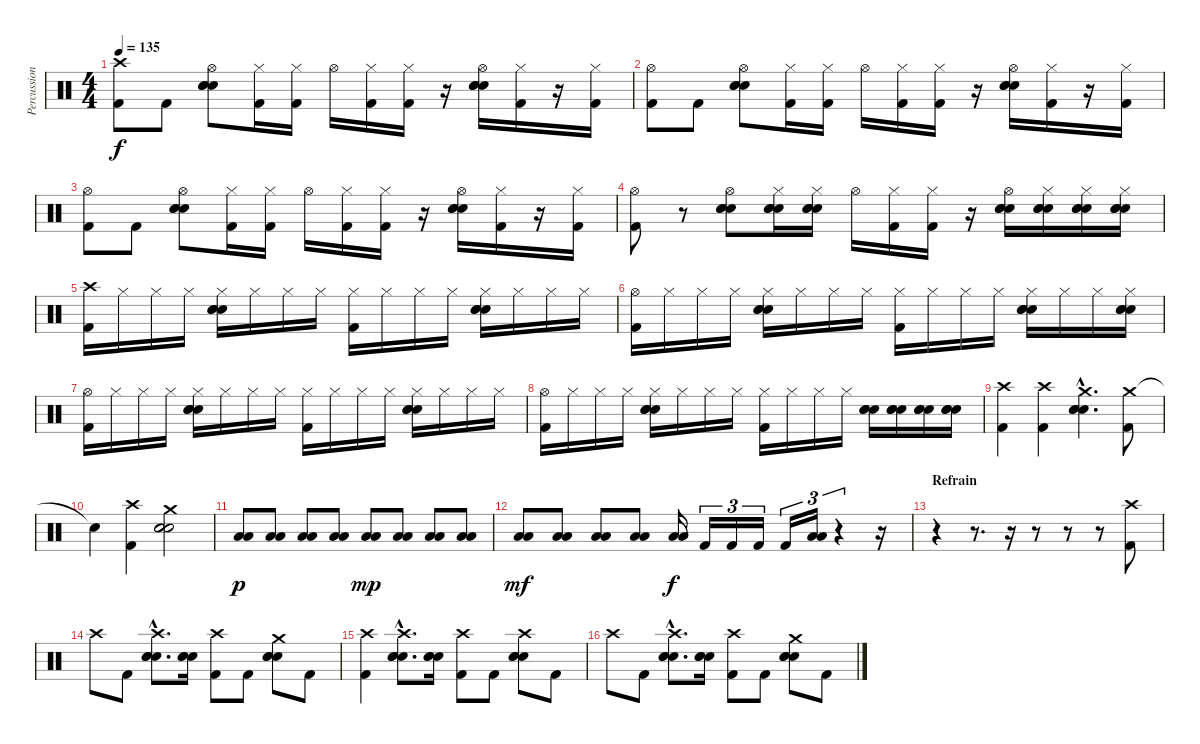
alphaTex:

\track ("Percussions" "Percussion") {instrument percussion}
\staff {score}
\articulation defaults
\ts (4 4)
\tempo 135
\clef neutral
\ks c
("Crash high (hit)" "Kick (hit) 2").8{dy f} "Kick (hit) 2".8 ("Hi-Hat (open)" "Snare (hit) 2" "Electric Snare (hit)" "Electric Snare (hit)").8 ("Hi-Hat (closed)" "Kick (hit) 2").16 ("Hi-Hat (closed)" "Kick (hit) 2").16 "Hi-Hat (open)".16 ("Hi-Hat (closed)" "Kick (hit) 2").16 ("Hi-Hat (closed)" "Kick (hit) 2").16 r.16 ("Hi-Hat (open)" "Snare (hit) 2" "Electric Snare (hit)" "Electric Snare (hit)").16 ("Hi-Hat (closed)" "Kick (hit) 2").16 r.16 ("Hi-Hat (closed)" "Kick (hit) 2").16 |
("Hi-Hat (open)" "Kick (hit) 2").8 "Kick (hit) 2".8 ("Hi-Hat (open)" "Snare (hit) 2" "Electric Snare (hit)" "Electric Snare (hit)").8 ("Hi-Hat (closed)" "Kick (hit) 2").16 ("Hi-Hat (closed)" "Kick (hit) 2").16 "Hi-Hat (open)".16 ("Hi-Hat (closed)" "Kick (hit) 2").16 ("Hi-Hat (closed)" "Kick (hit) 2").16 r.16 ("Hi-Hat (open)" "Snare (hit) 2" "Electric Snare (hit)" "Electric Snare (hit)").16 ("Hi-Hat (closed)" "Kick (hit) 2").16 r.16 ("Hi-Hat (closed)" "Kick (hit) 2").16 |
("Hi-Hat (open)" "Kick (hit) 2").8 "Kick (hit) 2".8 ("Hi-Hat (open)" "Snare (hit) 2" "Electric Snare (hit)" "Electric Snare (hit)").8 ("Hi-Hat (closed)" "Kick (hit) 2").16 ("Hi-Hat (closed)" "Kick (hit) 2").16 "Hi-Hat (open)".16 ("Hi-Hat (closed)" "Kick (hit) 2").16 ("Hi-Hat (closed)" "Kick (hit) 2").16 r.16 ("Hi-Hat (open)" "Snare (hit) 2" "Electric Snare (hit)" "Electric Snare (hit)").16 ("Hi-Hat (closed)" "Kick (hit) 2").16 r.16 ("Hi-Hat (closed)" "Kick (hit) 2").16 |
("Hi-Hat (open)" "Kick (hit) 2").8 r.8 ("Hi-Hat (open)" "Snare (hit) 2" "Electric Snare (hit)" "Electric Snare (hit)").8 ("Hi-Hat (closed)" "Snare (hit) 2" "Electric Snare (hit)" "Electric Snare (hit)").16 ("Hi-Hat (closed)" "Snare (hit) 2" "Electric Snare (hit)" "Electric Snare (hit)").16 "Hi-Hat (open)".16 ("Hi-Hat (closed)" "Kick (hit) 2").16 ("Hi-Hat (closed)" "Kick (hit) 2").16 r.16 ("Hi-Hat (open)" "Snare (hit) 2" "Electric Snare (hit)" "Electric Snare (hit)").16 ("Hi-Hat (closed)" "Snare (hit) 2" "Electric Snare (hit)" "Electric Snare (hit)").16 ("Hi-Hat (closed)" "Snare (hit) 2" "Electric Snare (hit)" "Electric Snare (hit)").16 ("Hi-Hat (closed)" "Snare (hit) 2" "Electric Snare (hit)" "Electric Snare (hit)").16 |
("Crash high (hit)" "Kick (hit) 2").16 "Hi-Hat (closed)".16 "Hi-Hat (closed)".16 "Hi-Hat (closed)".16 ("Hi-Hat (closed)" "Snare (hit) 2" "Electric Snare (hit)" "Electric Snare (hit)").16 "Hi-Hat (closed)".16 "Hi-Hat (closed)".16 "Hi-Hat (closed)".16 ("Hi-Hat (closed)" "Kick (hit) 2").16 "Hi-Hat (closed)".16 "Hi-Hat (closed)".16 "Hi-Hat (closed)".16 ("Hi-Hat (closed)" "Snare (hit) 2" "Electric Snare (hit)" "Electric Snare (hit)").16 "Hi-Hat (closed)".16 "Hi-Hat (closed)".16 "Hi-Hat (closed)".16 |
("Hi-Hat (open)" "Kick (hit) 2").16 "Hi-Hat (closed)".16 "Hi-Hat (closed)".16 "Hi-Hat (closed)".16 ("Hi-Hat (closed)" "Snare (hit) 2" "Electric Snare (hit)" "Electric Snare (hit)").16 "Hi-Hat (closed)".16 "Hi-Hat (closed)".16 "Hi-Hat (closed)".16 ("Hi-Hat (closed)" "Kick (hit) 2").16 "Hi-Hat (closed)".16 "Hi-Hat (closed)".16 "Hi-Hat (closed)".16 ("Hi-Hat (closed)" "Snare (hit) 2" "Electric Snare (hit)" "Electric Snare (hit)").16 "Hi-Hat (closed)".16 "Hi-Hat (closed)".16 ("Hi-Hat (closed)" "Snare (hit) 2" "Electric Snare (hit)" "Electric Snare (hit)").16 |
("Hi-Hat (open)" "Kick (hit) 2").16 "Hi-Hat (closed)".16 "Hi-Hat (closed)".16 "Hi-Hat (closed)".16 ("Hi-Hat (closed)" "Snare (hit) 2" "Electric Snare (hit)" "Electric Snare (hit)").16 "Hi-Hat (closed)".16 "Hi-Hat (closed)".16 "Hi-Hat (closed)".16 ("Hi-Hat (closed)" "Kick (hit) 2").16 "Hi-Hat (closed)".16 "Hi-Hat (closed)".16 "Hi-Hat (closed)".16 ("Hi-Hat (closed)" "Snare (hit) 2" "Electric Snare (hit)" "Electric Snare (hit)").16 "Hi-Hat (closed)".16 "Hi-Hat (closed)".16 "Hi-Hat (closed)".16 |
("Hi-Hat (open)" "Kick (hit) 2").16 "Hi-Hat (closed)".16 "Hi-Hat (closed)".16 "Hi-Hat (closed)".16 ("Hi-Hat (closed)" "Snare (hit) 2" "Electric Snare (hit)" "Electric Snare (hit)").16 "Hi-Hat (closed)".16 "Hi-Hat (closed)".16 "Hi-Hat (closed)".16 ("Hi-Hat (closed)" "Kick (hit) 2").16 "Hi-Hat (closed)".16 "Hi-Hat (closed)".16 "Hi-Hat (closed)".16 ("Snare (hit) 2" "Electric Snare (hit)" "Electric Snare (hit)").16 ("Snare (hit) 2" "Electric Snare (hit)" "Electric Snare (hit)").16 ("Snare (hit) 2" "Electric Snare (hit)" "Electric Snare (hit)").16 ("Snare (hit) 2" "Electric Snare (hit)" "Electric Snare (hit)").16 |
("Crash high (hit)" "Kick (hit) 2").4 ("Crash high (hit)" "Kick (hit) 2").4 ("Crash medium (hit)"{hac} "Snare (hit) 2"{hac} "Electric Snare (hit)"{hac} "Electric Snare (hit)"{hac}).4{d} ("Crash medium (hit)" "Kick (hit) 2").8 |
"Snare (hit)"{t}.4 ("Crash high (hit)" "Kick (hit) 2").4 ("Crash medium (hit)" "Snare (hit) 2" "Electric Snare (hit)" "Electric Snare (hit)").2 |
("Low Tom (hit)" "Low Tom (hit)").8{dy p} ("Low Tom (hit)" "Low Tom (hit)").8 ("Low Tom (hit)" "Low Tom (hit)").8 ("Low Tom (hit)" "Low Tom (hit)").8 ("Low Tom (hit)" "Low Tom (hit)").8{dy mp} ("Low Tom (hit)" "Low Tom (hit)").8 ("Low Tom (hit)" "Low Tom (hit)").8 ("Low Tom (hit)" "Low Tom (hit)").8 |
("Low Tom (hit)" "Low Tom (hit)").8{dy mf} ("Low Tom (hit)" "Low Tom (hit)").8 ("Low Tom (hit)" "Low Tom (hit)").8 ("Low Tom (hit)" "Low Tom (hit)").8 ("Low Tom (hit)" "Low Tom (hit)").16{dy f} "Kick (hit) 2".16{tu (3 2)} "Kick (hit) 2".16{tu (3 2)} "Kick (hit) 2".16{tu (3 2)} "Kick (hit) 2".16{tu (3 2)} ("Low Tom (hit)" "Low Tom (hit)").16{tu (3 2)} r.4{tu (3 2)} r.16 |
\section ("" "Refrain")
r.4 r.8{d} r.16 r.8 r.8 r.8 ("Crash high (hit)" "Kick (hit) 2").8 |
"Crash high (hit)".8 "Kick (hit) 2".8 ("Crash high (hit)"{hac} "Snare (hit) 2"{hac} "Electric Snare (hit)"{hac} "Electric Snare (hit)"{hac}).8{d} ("Snare (hit) 2" "Electric Snare (hit)" "Electric Snare (hit)").16 ("Crash high (hit)" "Kick (hit) 2").8 "Kick (hit) 2".8 ("Crash medium (hit)" "Snare (hit) 2" "Electric Snare (hit)" "Electric Snare (hit)").8 "Kick (hit) 2".8 |
("Crash high (hit)" "Kick (hit) 2").4 ("Crash high (hit)"{hac} "Snare (hit) 2"{hac} "Electric Snare (hit)"{hac} "Electric Snare (hit)"{hac}).8{d} ("Snare (hit) 2" "Electric Snare (hit)" "Electric Snare (hit)").16 ("Crash high (hit)" "Kick (hit) 2").8 "Kick (hit) 2".8 ("Crash high (hit)" "Snare (hit) 2" "Electric Snare (hit)" "Electric Snare (hit)").8 "Kick (hit) 2".8 |
"Crash high (hit)".8 "Kick (hit) 2".8 ("Crash high (hit)"{hac} "Snare (hit) 2"{hac} "Electric Snare (hit)"{hac} "Electric Snare (hit)"{hac}).8{d} ("Snare (hit) 2" "Electric Snare (hit)" "Electric Snare (hit)").16 ("Crash high (hit)" "Kick (hit) 2").8 "Kick (hit) 2".8 ("Crash medium (hit)" "Snare (hit) 2" "Electric Snare (hit)" "Electric Snare (hit)").8 "Kick (hit) 2".8
